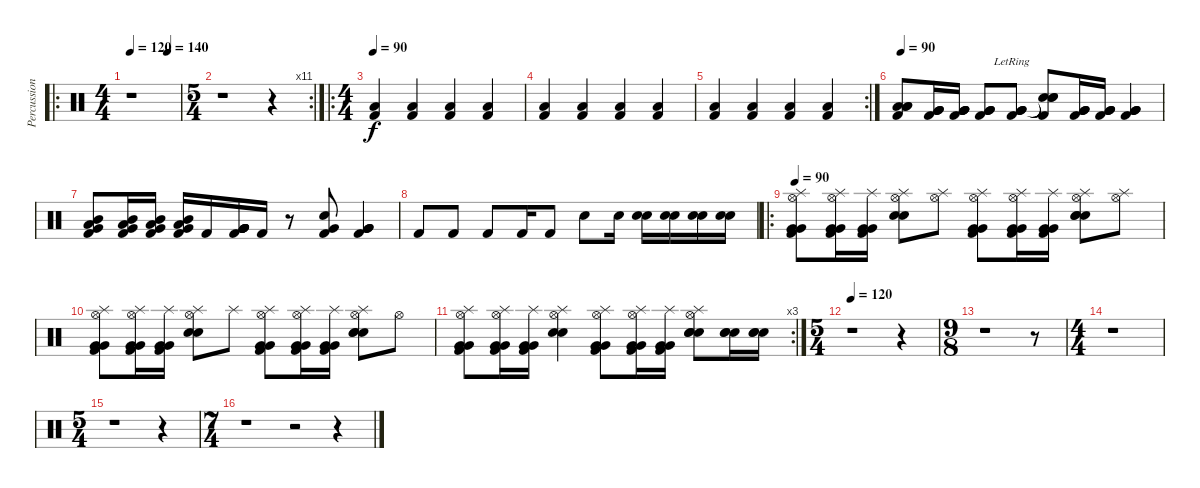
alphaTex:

\track ("Percussions" "Percussion") {instrument percussion}
\staff {score}
\articulation defaults
\ro
\ts (4 4)
\tempo 120
\tempo 115
\tempo (140 0.75)
\tempo 120
\clef neutral
\ks c
r.1{dy f} |
\rc 11
\ts (5 4)
r.1 r.4 |
\ro
\ts (4 4)
\tempo 90
("Kick (hit) 2" "Low Floor Tom (hit)").4 ("Kick (hit) 2" "Low Floor Tom (hit)").4 ("Kick (hit) 2" "Low Floor Tom (hit)").4 ("Kick (hit) 2" "Low Floor Tom (hit)").4 |
("Kick (hit) 2" "Low Floor Tom (hit)").4 ("Kick (hit) 2" "Low Floor Tom (hit)").4 ("Kick (hit) 2" "Low Floor Tom (hit)").4 ("Kick (hit) 2" "Low Floor Tom (hit)").4 |
\rc 2
("Kick (hit) 2" "Low Floor Tom (hit)").4 ("Kick (hit) 2" "Low Floor Tom (hit)").4 ("Kick (hit) 2" "Low Floor Tom (hit)").4 ("Kick (hit) 2" "Low Floor Tom (hit)").4 |
\tempo 90
("Kick (hit) 2" "Low Floor Tom (hit)" "Low Floor Tom (hit)" "Low Floor Tom (hit)").8 ("Kick (hit) 2" "Very Low Tom (hit)" "Very Low Tom (hit)" "Very Low Tom (hit)").16 ("Kick (hit) 2" "Very Low Tom (hit)" "Very Low Tom (hit)" "Very Low Tom (hit)" "Very Low Tom (hit)").16 ("Kick (hit) 2" "Very Low Tom (hit)" "Very Low Tom (hit)" "Very Low Tom (hit)").8 ("Kick (hit) 2" "Very Low Tom (hit)"{lr} "Very Low Tom (hit)"{lr} "Very Low Tom (hit)"{lr}).8 ("Kick (hit) 2" "Snare (hit)"{t} "Snare (hit)"{t} "Snare (hit)"{t}).8 ("Kick (hit) 2" "Very Low Tom (hit)" "Very Low Tom (hit)" "Very Low Tom (hit)").16 ("Kick (hit) 2" "Very Low Tom (hit)" "Very Low Tom (hit)" "Very Low Tom (hit)").16 ("Kick (hit) 2" "Very Low Tom (hit)" "Very Low Tom (hit)" "Very Low Tom (hit)").4 |
("Kick (hit) 2" "Very Low Tom (hit)" "Mid Tom (hit)" "Low Tom (hit)").8 ("Kick (hit) 2" "Very Low Tom (hit)" "Mid Tom (hit)" "Low Tom (hit)").16 ("Kick (hit) 2" "Very Low Tom (hit)" "Mid Tom (hit)" "Low Tom (hit)").16 ("Kick (hit) 2" "Very Low Tom (hit)" "Mid Tom (hit)" "Low Tom (hit)").16 "Kick (hit) 2".16 ("Very Low Tom (hit)" "Very Low Tom (hit)" "Kick (hit) 2" "Very Low Tom (hit)" "Very Low Tom (hit)" "Very Low Tom (hit)").16 "Kick (hit) 2".16 r.8 ("Kick (hit) 2" "Very Low Tom (hit)" "Electric Snare (hit)").8 ("Kick (hit) 2" "Very Low Tom (hit)" "Very Low Tom (hit)" "Very Low Tom (hit)").4 |
"Kick (hit) 2".8 "Kick (hit) 2".8 "Kick (hit) 2".8 "Kick (hit) 2".16 "Kick (hit) 2".8 "Electric Snare (hit)".8 "Electric Snare (hit)".16 ("Electric Snare (hit)" "Electric Snare (hit)").16 ("Electric Snare (hit)" "Electric Snare (hit)").16 ("Electric Snare (hit)" "Electric Snare (hit)").16 ("Electric Snare (hit)" "Electric Snare (hit)").16 |
\ro
\tempo 90
("Kick (hit) 2" "Very Low Tom (hit)" "Very Low Tom (hit)" "Hi-Hat (open)" "Splash (hit)").8 ("Kick (hit) 2" "Very Low Tom (hit)" "Very Low Tom (hit)" "Hi-Hat (open)" "Splash (hit)").16 ("Kick (hit) 2" "Very Low Tom (hit)" "Very Low Tom (hit)" "Splash (hit)").16 ("Electric Snare (hit)" "Electric Snare (hit)" "Splash (hit)" "Hi-Hat (open)").8 ("Hi-Hat (open)" "Splash (hit)").8 ("Kick (hit) 2" "Very Low Tom (hit)" "Very Low Tom (hit)" "Hi-Hat (open)" "Splash (hit)").8 ("Kick (hit) 2" "Very Low Tom (hit)" "Very Low Tom (hit)" "Hi-Hat (open)" "Splash (hit)").16 ("Kick (hit) 2" "Very Low Tom (hit)" "Very Low Tom (hit)" "Splash (hit)").16 ("Electric Snare (hit)" "Electric Snare (hit)" "Electric Snare (hit)" "Hi-Hat (open)" "Splash (hit)").8 ("Splash (hit)" "Hi-Hat (open)").8 |
("Kick (hit) 2" "Very Low Tom (hit)" "Very Low Tom (hit)" "Hi-Hat (open)" "Splash (hit)").8 ("Kick (hit) 2" "Very Low Tom (hit)" "Very Low Tom (hit)" "Hi-Hat (open)" "Splash (hit)").16 ("Kick (hit) 2" "Very Low Tom (hit)" "Very Low Tom (hit)" "Splash (hit)").16 ("Electric Snare (hit)" "Electric Snare (hit)" "Splash (hit)" "Hi-Hat (open)").8 "Splash (hit)".8 ("Kick (hit) 2" "Very Low Tom (hit)" "Very Low Tom (hit)" "Hi-Hat (open)" "Splash (hit)").8 ("Kick (hit) 2" "Very Low Tom (hit)" "Very Low Tom (hit)" "Hi-Hat (open)" "Splash (hit)").16 ("Kick (hit) 2" "Very Low Tom (hit)" "Very Low Tom (hit)" "Splash (hit)").16 ("Electric Snare (hit)" "Electric Snare (hit)" "Electric Snare (hit)" "Hi-Hat (open)" "Splash (hit)").8 "Hi-Hat (open)".8 |
\rc 3
("Kick (hit) 2" "Very Low Tom (hit)" "Very Low Tom (hit)" "Hi-Hat (open)" "Splash (hit)").8 ("Kick (hit) 2" "Very Low Tom (hit)" "Very Low Tom (hit)" "Hi-Hat (open)" "Splash (hit)").16 ("Kick (hit) 2" "Very Low Tom (hit)" "Very Low Tom (hit)" "Splash (hit)").16 ("Electric Snare (hit)" "Electric Snare (hit)" "Splash (hit)" "Hi-Hat (open)").4 ("Kick (hit) 2" "Very Low Tom (hit)" "Very Low Tom (hit)" "Hi-Hat (open)" "Splash (hit)").8 ("Kick (hit) 2" "Very Low Tom (hit)" "Very Low Tom (hit)" "Hi-Hat (open)" "Splash (hit)").16 ("Kick (hit) 2" "Very Low Tom (hit)" "Very Low Tom (hit)" "Splash (hit)").16 ("Electric Snare (hit)" "Electric Snare (hit)" "Electric Snare (hit)" "Hi-Hat (open)" "Splash (hit)").8 ("Electric Snare (hit)" "Electric Snare (hit)" "Electric Snare (hit)").16 ("Electric Snare (hit)" "Electric Snare (hit)" "Electric Snare (hit)").16 |
\ts (5 4)
\tempo 120
r.1 r.4 |
\ts (9 8)
r.1 r.8 |
\ts (4 4)
r.1 |
\ts (5 4)
r.1 r.4 |
\ts (7 4)
r.1 r.2 r.4
